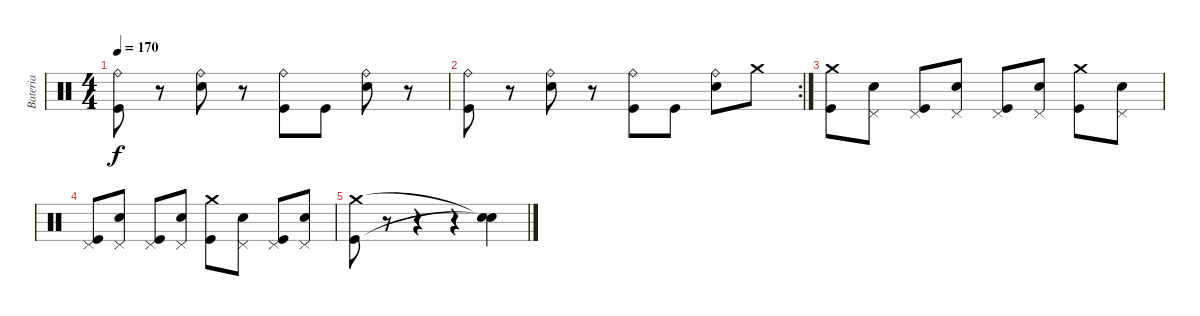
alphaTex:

\track ("Bateria" "Bateria") {instrument percussion}
\staff {score}
\articulation defaults
\ts (4 4)
\tempo 170
\clef neutral
\ks c
("Ride (bell)" "Kick (hit)").8{dy f} r.8 ("Ride (bell)" "Electric Snare (hit)").8 r.8 ("Ride (bell)" "Kick (hit)").8 "Kick (hit)".8 ("Ride (bell)" "Electric Snare (hit)").8 r.8 |
\rc 2
("Ride (bell)" "Kick (hit)").8 r.8 ("Ride (bell)" "Electric Snare (hit)").8 r.8 ("Ride (bell)" "Kick (hit)").8 "Kick (hit)".8 ("Ride (bell)" "Electric Snare (hit)").8 "Crash medium (hit)".8 |
("Crash medium (hit)" "Kick (hit)").8 ("Pedal Hi-Hat (hit)" "Electric Snare (hit)").8 ("Pedal Hi-Hat (hit)" "Kick (hit)").8 ("Pedal Hi-Hat (hit)" "Electric Snare (hit)").8 ("Pedal Hi-Hat (hit)" "Kick (hit)").8 ("Pedal Hi-Hat (hit)" "Electric Snare (hit)").8 ("Crash medium (hit)" "Kick (hit)").8 ("Pedal Hi-Hat (hit)" "Electric Snare (hit)").8 |
("Pedal Hi-Hat (hit)" "Kick (hit)").8 ("Pedal Hi-Hat (hit)" "Electric Snare (hit)").8 ("Pedal Hi-Hat (hit)" "Kick (hit)").8 ("Pedal Hi-Hat (hit)" "Electric Snare (hit)").8 ("Crash medium (hit)" "Kick (hit)").8 ("Pedal Hi-Hat (hit)" "Electric Snare (hit)").8 ("Pedal Hi-Hat (hit)" "Kick (hit)").8 ("Pedal Hi-Hat (hit)" "Electric Snare (hit)").8 |
("Crash medium (hit)" "Kick (hit)").8 r.8 r.4 r.4 ("Snare (hit)"{t} "Snare (hit)"{t}).4
